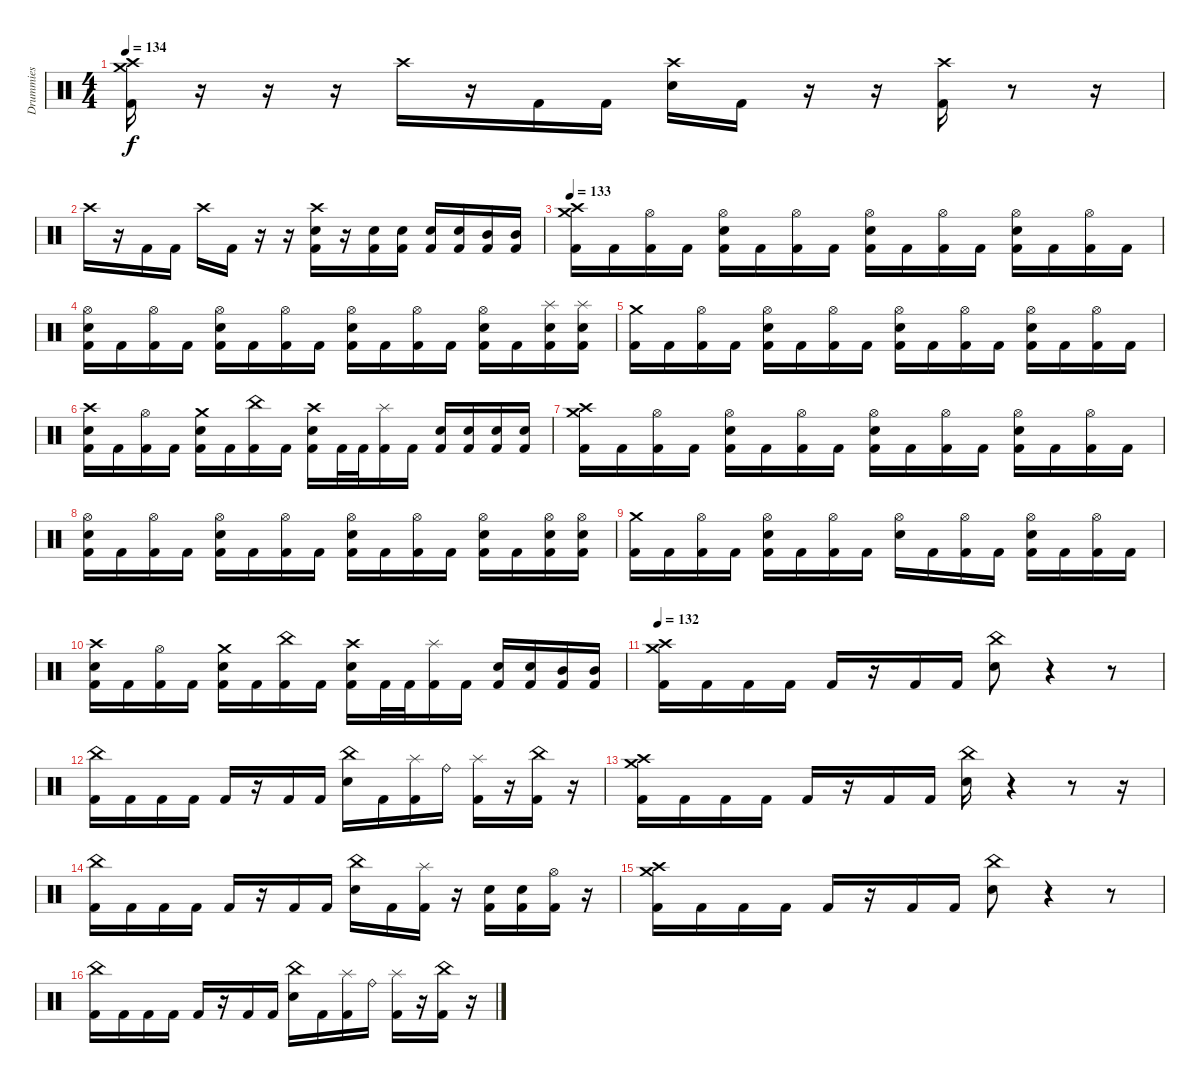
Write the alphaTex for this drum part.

\track ("Drummies" "Drummies") {instrument percussion}
\staff {score}
\articulation defaults
\ts (4 4)
\tempo 134
\clef neutral
\ks c
("Crash high (hit)" "Crash medium (hit)" "Kick (hit) 2").16{dy f} r.16 r.16 r.16 "Crash high (hit)".16 r.16 "Kick (hit) 2".16 "Kick (hit) 2".16 ("Crash high (hit)" "Electric Snare (hit)").16 "Kick (hit) 2".16 r.16 r.16 ("Crash high (hit)" "Kick (hit) 2").16 r.8 r.16 |
"Crash high (hit)".16 r.16 "Kick (hit) 2".16 "Kick (hit) 2".16 "Crash high (hit)".16 "Kick (hit) 2".16 r.16 r.16 ("Crash high (hit)" "Electric Snare (hit)" "Kick (hit) 2").16 r.16 ("Electric Snare (hit)" "Kick (hit) 2").16 ("Electric Snare (hit)" "Kick (hit) 2").16 ("Electric Snare (hit)" "Kick (hit) 2").16 ("Electric Snare (hit)" "Kick (hit) 2").16 ("Mid Tom (hit)" "Kick (hit) 2").16 ("Mid Tom (hit)" "Kick (hit) 2").16 |
\tempo 133
("Crash high (hit)" "Crash medium (hit)" "Kick (hit) 2").16 "Kick (hit) 2".16 ("Hi-Hat (open)" "Kick (hit) 2").16 "Kick (hit) 2".16 ("Hi-Hat (open)" "Electric Snare (hit)" "Kick (hit) 2").16 "Kick (hit) 2".16 ("Hi-Hat (open)" "Kick (hit) 2").16 "Kick (hit) 2".16 ("Hi-Hat (open)" "Electric Snare (hit)" "Kick (hit) 2").16 "Kick (hit) 2".16 ("Hi-Hat (open)" "Kick (hit) 2").16 "Kick (hit) 2".16 ("Hi-Hat (open)" "Electric Snare (hit)" "Kick (hit) 2").16 "Kick (hit) 2".16 ("Hi-Hat (open)" "Kick (hit) 2").16 "Kick (hit) 2".16 |
("Hi-Hat (open)" "Electric Snare (hit)" "Kick (hit) 2").16 "Kick (hit) 2".16 ("Hi-Hat (open)" "Kick (hit) 2").16 "Kick (hit) 2".16 ("Hi-Hat (open)" "Electric Snare (hit)" "Kick (hit) 2").16 "Kick (hit) 2".16 ("Hi-Hat (open)" "Kick (hit) 2").16 "Kick (hit) 2".16 ("Hi-Hat (open)" "Electric Snare (hit)" "Kick (hit) 2").16 "Kick (hit) 2".16 ("Hi-Hat (open)" "Kick (hit) 2").16 "Kick (hit) 2".16 ("Hi-Hat (open)" "Electric Snare (hit)" "Kick (hit) 2").16 "Kick (hit) 2".16 ("Splash (hit)" "Electric Snare (hit)" "Kick (hit) 2").16 ("Splash (hit)" "Electric Snare (hit)" "Kick (hit) 2").16 |
("Crash medium (hit)" "Kick (hit) 2").16 "Kick (hit) 2".16 ("Hi-Hat (open)" "Kick (hit) 2").16 "Kick (hit) 2".16 ("Hi-Hat (open)" "Electric Snare (hit)" "Kick (hit) 2").16 "Kick (hit) 2".16 ("Hi-Hat (open)" "Kick (hit) 2").16 "Kick (hit) 2".16 ("Hi-Hat (open)" "Electric Snare (hit)" "Kick (hit) 2").16 "Kick (hit) 2".16 ("Hi-Hat (open)" "Kick (hit) 2").16 "Kick (hit) 2".16 ("Hi-Hat (open)" "Electric Snare (hit)" "Kick (hit) 2").16 "Kick (hit) 2".16 ("Hi-Hat (open)" "Kick (hit) 2").16 "Kick (hit) 2".16 |
("Crash high (hit)" "Electric Snare (hit)" "Kick (hit) 2").16 "Kick (hit) 2".16 ("Hi-Hat (open)" "Kick (hit) 2").16 "Kick (hit) 2".16 ("Crash medium (hit)" "Electric Snare (hit)" "Kick (hit) 2").16 "Kick (hit) 2".16 ("China (hit)" "Kick (hit) 2").16 "Kick (hit) 2".16 ("Crash high (hit)" "Electric Snare (hit)" "Kick (hit) 2").16 "Kick (hit) 2".32 "Kick (hit) 2".32 ("Splash (hit)" "Kick (hit) 2").16 "Kick (hit) 2".16 ("Electric Snare (hit)" "Kick (hit) 2").16 ("Electric Snare (hit)" "Kick (hit) 2").16 ("Electric Snare (hit)" "Kick (hit) 2").16 ("Electric Snare (hit)" "Kick (hit) 2").16 |
("Crash high (hit)" "Crash medium (hit)" "Kick (hit) 2").16 "Kick (hit) 2".16 ("Hi-Hat (open)" "Kick (hit) 2").16 "Kick (hit) 2".16 ("Hi-Hat (open)" "Electric Snare (hit)" "Kick (hit) 2").16 "Kick (hit) 2".16 ("Hi-Hat (open)" "Kick (hit) 2").16 "Kick (hit) 2".16 ("Hi-Hat (open)" "Electric Snare (hit)" "Kick (hit) 2").16 "Kick (hit) 2".16 ("Hi-Hat (open)" "Kick (hit) 2").16 "Kick (hit) 2".16 ("Hi-Hat (open)" "Electric Snare (hit)" "Kick (hit) 2").16 "Kick (hit) 2".16 ("Hi-Hat (open)" "Kick (hit) 2").16 "Kick (hit) 2".16 |
("Hi-Hat (open)" "Electric Snare (hit)" "Kick (hit) 2").16 "Kick (hit) 2".16 ("Hi-Hat (open)" "Kick (hit) 2").16 "Kick (hit) 2".16 ("Hi-Hat (open)" "Electric Snare (hit)" "Kick (hit) 2").16 "Kick (hit) 2".16 ("Hi-Hat (open)" "Kick (hit) 2").16 "Kick (hit) 2".16 ("Hi-Hat (open)" "Electric Snare (hit)" "Kick (hit) 2").16 "Kick (hit) 2".16 ("Hi-Hat (open)" "Kick (hit) 2").16 "Kick (hit) 2".16 ("Hi-Hat (open)" "Electric Snare (hit)" "Kick (hit) 2").16 "Kick (hit) 2".16 ("Hi-Hat (open)" "Electric Snare (hit)" "Kick (hit) 2").16 ("Hi-Hat (open)" "Electric Snare (hit)" "Kick (hit) 2").16 |
("Crash medium (hit)" "Kick (hit) 2").16 "Kick (hit) 2".16 ("Hi-Hat (open)" "Kick (hit) 2").16 "Kick (hit) 2".16 ("Hi-Hat (open)" "Electric Snare (hit)" "Kick (hit) 2").16 "Kick (hit) 2".16 ("Hi-Hat (open)" "Kick (hit) 2").16 "Kick (hit) 2".16 ("Hi-Hat (open)" "Electric Snare (hit)").16 "Kick (hit) 2".16 ("Hi-Hat (open)" "Kick (hit) 2").16 "Kick (hit) 2".16 ("Hi-Hat (open)" "Electric Snare (hit)" "Kick (hit) 2").16 "Kick (hit) 2".16 ("Hi-Hat (open)" "Kick (hit) 2").16 "Kick (hit) 2".16 |
("Crash high (hit)" "Electric Snare (hit)" "Kick (hit) 2").16 "Kick (hit) 2".16 ("Hi-Hat (open)" "Kick (hit) 2").16 "Kick (hit) 2".16 ("Crash medium (hit)" "Electric Snare (hit)" "Kick (hit) 2").16 "Kick (hit) 2".16 ("China (hit)" "Kick (hit) 2").16 "Kick (hit) 2".16 ("Crash high (hit)" "Electric Snare (hit)" "Kick (hit) 2").16 "Kick (hit) 2".32 "Kick (hit) 2".32 ("Splash (hit)" "Kick (hit) 2").16 "Kick (hit) 2".16 ("Electric Snare (hit)" "Kick (hit) 2").16 ("Electric Snare (hit)" "Kick (hit) 2").16 ("Mid Tom (hit)" "Kick (hit) 2").16 ("Mid Tom (hit)" "Kick (hit) 2").16 |
\tempo 132
("Crash high (hit)" "Crash medium (hit)" "Kick (hit) 2").16 "Kick (hit) 2".16 "Kick (hit) 2".16 "Kick (hit) 2".16 "Kick (hit) 2".16 r.16 "Kick (hit) 2".16 "Kick (hit) 2".16 ("China (hit)" "Electric Snare (hit)").8 r.4 r.8 |
("China (hit)" "Kick (hit) 2").16 "Kick (hit) 2".16 "Kick (hit) 2".16 "Kick (hit) 2".16 "Kick (hit) 2".16 r.16 "Kick (hit) 2".16 "Kick (hit) 2".16 ("China (hit)" "Electric Snare (hit)").16 "Kick (hit) 2".16 ("Splash (hit)" "Kick (hit) 2").16 "Ride (bell)".16 ("Splash (hit)" "Kick (hit) 2").16 r.16 ("China (hit)" "Kick (hit) 2").16 r.16 |
("Crash medium (hit)" "Crash high (hit)" "Kick (hit) 2").16 "Kick (hit) 2".16 "Kick (hit) 2".16 "Kick (hit) 2".16 "Kick (hit) 2".16 r.16 "Kick (hit) 2".16 "Kick (hit) 2".16 ("China (hit)" "Electric Snare (hit)").16 r.4 r.8 r.16 |
("China (hit)" "Kick (hit) 2").16 "Kick (hit) 2".16 "Kick (hit) 2".16 "Kick (hit) 2".16 "Kick (hit) 2".16 r.16 "Kick (hit) 2".16 "Kick (hit) 2".16 ("China (hit)" "Electric Snare (hit)").16 "Kick (hit) 2".16 ("Splash (hit)" "Kick (hit) 2").16 r.16 ("Electric Snare (hit)" "Kick (hit) 2").16 ("Electric Snare (hit)" "Kick (hit) 2").16 ("Hi-Hat (open)" "Kick (hit) 2").16 r.16 |
("Crash high (hit)" "Crash medium (hit)" "Kick (hit) 2").16 "Kick (hit) 2".16 "Kick (hit) 2".16 "Kick (hit) 2".16 "Kick (hit) 2".16 r.16 "Kick (hit) 2".16 "Kick (hit) 2".16 ("China (hit)" "Electric Snare (hit)").8 r.4 r.8 |
("China (hit)" "Kick (hit) 2").16 "Kick (hit) 2".16 "Kick (hit) 2".16 "Kick (hit) 2".16 "Kick (hit) 2".16 r.16 "Kick (hit) 2".16 "Kick (hit) 2".16 ("China (hit)" "Electric Snare (hit)").16 "Kick (hit) 2".16 ("Splash (hit)" "Kick (hit) 2").16 "Ride (bell)".16 ("Splash (hit)" "Kick (hit) 2").16 r.16 ("China (hit)" "Kick (hit) 2").16 r.16
